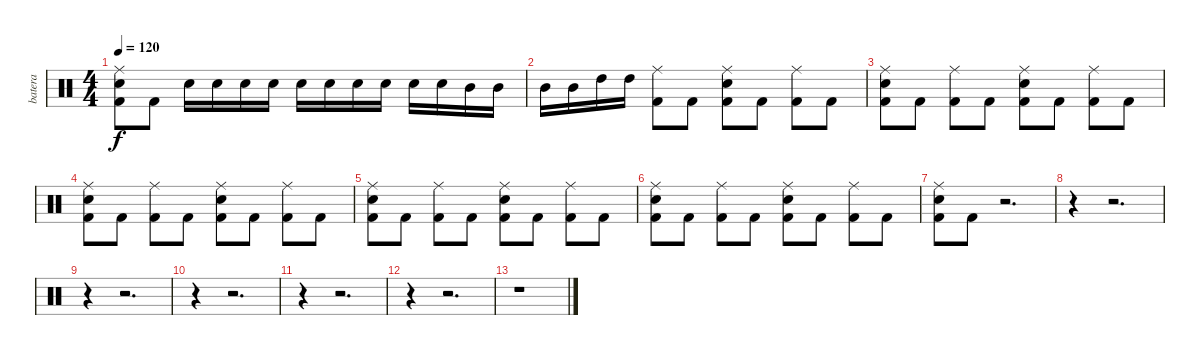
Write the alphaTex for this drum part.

\track ("batera" "batera") {instrument percussion}
\staff {score}
\articulation defaults
\ts (4 4)
\tempo 120
\clef neutral
\ks c
("Ride (middle)" "Electric Snare (hit)" "Kick (hit) 2").8{dy f} "Kick (hit) 2".8 "Electric Snare (hit)".16 "Electric Snare (hit)".16 "Electric Snare (hit)".16 "Electric Snare (hit)".16 "Electric Snare (hit)".16 "Electric Snare (hit)".16 "Electric Snare (hit)".16 "Electric Snare (hit)".16 "Electric Snare (hit)".16 "Electric Snare (hit)".16 "Mid Tom (hit)".16 "Mid Tom (hit)".16 |
"Mid Tom (hit)".16 "Mid Tom (hit)".16 "High Tom (hit)".16 "High Tom (hit)".16 ("Ride (middle)" "Kick (hit) 2").8 "Kick (hit) 2".8 ("Ride (middle)" "Electric Snare (hit)" "Kick (hit) 2").8 "Kick (hit) 2".8 ("Ride (middle)" "Kick (hit) 2").8 "Kick (hit) 2".8 |
("Ride (middle)" "Electric Snare (hit)" "Kick (hit) 2").8 "Kick (hit) 2".8 ("Ride (middle)" "Kick (hit) 2").8 "Kick (hit) 2".8 ("Ride (middle)" "Electric Snare (hit)" "Kick (hit) 2").8 "Kick (hit) 2".8 ("Ride (middle)" "Kick (hit) 2").8 "Kick (hit) 2".8 |
("Ride (middle)" "Electric Snare (hit)" "Kick (hit) 2").8 "Kick (hit) 2".8 ("Ride (middle)" "Kick (hit) 2").8 "Kick (hit) 2".8 ("Ride (middle)" "Electric Snare (hit)" "Kick (hit) 2").8 "Kick (hit) 2".8 ("Ride (middle)" "Kick (hit) 2").8 "Kick (hit) 2".8 |
("Ride (middle)" "Electric Snare (hit)" "Kick (hit) 2").8 "Kick (hit) 2".8 ("Ride (middle)" "Kick (hit) 2").8 "Kick (hit) 2".8 ("Ride (middle)" "Electric Snare (hit)" "Kick (hit) 2").8 "Kick (hit) 2".8 ("Ride (middle)" "Kick (hit) 2").8 "Kick (hit) 2".8 |
("Ride (middle)" "Electric Snare (hit)" "Kick (hit) 2").8 "Kick (hit) 2".8 ("Ride (middle)" "Kick (hit) 2").8 "Kick (hit) 2".8 ("Ride (middle)" "Electric Snare (hit)" "Kick (hit) 2").8 "Kick (hit) 2".8 ("Ride (middle)" "Kick (hit) 2").8 "Kick (hit) 2".8 |
("Ride (middle)" "Electric Snare (hit)" "Kick (hit) 2").8 "Kick (hit) 2".8 r.2{d} |
r.4 r.2{d} |
r.4 r.2{d} |
r.4 r.2{d} |
r.4 r.2{d} |
r.4 r.2{d} |
r.1
